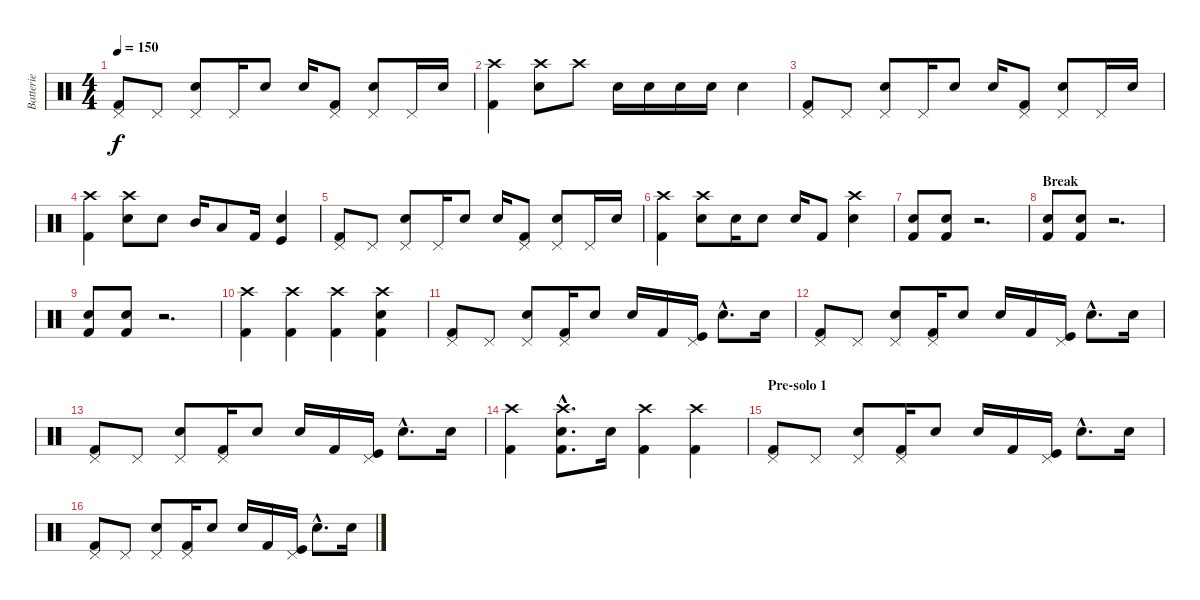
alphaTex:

\track ("Batterie" "Batterie") {instrument percussion}
\staff {score}
\articulation defaults
\ts (4 4)
\tempo 150
\clef neutral
\ks c
("Pedal Hi-Hat (hit)" "Kick (hit) 2").8{dy f} "Pedal Hi-Hat (hit)".8 ("Pedal Hi-Hat (hit)" "Electric Snare (hit)").8 "Pedal Hi-Hat (hit)".16 "Electric Snare (hit)".8 "Electric Snare (hit)".16 ("Pedal Hi-Hat (hit)" "Kick (hit) 2").8 ("Pedal Hi-Hat (hit)" "Electric Snare (hit)").8 "Pedal Hi-Hat (hit)".16 "Electric Snare (hit)".16 |
("Crash high (hit)" "Kick (hit) 2").4 ("Crash high (hit)" "Electric Snare (hit)").8 "Crash high (hit)".8 "Electric Snare (hit)".16 "Electric Snare (hit)".16 "Electric Snare (hit)".16 "Electric Snare (hit)".16 "Electric Snare (hit)".4 |
("Pedal Hi-Hat (hit)" "Kick (hit) 2").8 "Pedal Hi-Hat (hit)".8 ("Pedal Hi-Hat (hit)" "Electric Snare (hit)").8 "Pedal Hi-Hat (hit)".16 "Electric Snare (hit)".8 "Electric Snare (hit)".16 ("Pedal Hi-Hat (hit)" "Kick (hit) 2").8 ("Pedal Hi-Hat (hit)" "Electric Snare (hit)").8 "Pedal Hi-Hat (hit)".16 "Electric Snare (hit)".16 |
("Crash high (hit)" "Kick (hit) 2").4 ("Crash high (hit)" "Electric Snare (hit)").8 "Electric Snare (hit)".8 "Mid Tom (hit)".16 "Low Tom (hit)".8 "Kick (hit) 2".16 ("Electric Snare (hit)" "Kick (hit)").4 |
("Pedal Hi-Hat (hit)" "Kick (hit) 2").8 "Pedal Hi-Hat (hit)".8 ("Pedal Hi-Hat (hit)" "Electric Snare (hit)").8 "Pedal Hi-Hat (hit)".16 "Electric Snare (hit)".8 "Electric Snare (hit)".16 ("Pedal Hi-Hat (hit)" "Kick (hit) 2").8 ("Pedal Hi-Hat (hit)" "Electric Snare (hit)").8 "Pedal Hi-Hat (hit)".16 "Electric Snare (hit)".16 |
("Crash high (hit)" "Kick (hit) 2").4 ("Crash high (hit)" "Electric Snare (hit)").8 "Electric Snare (hit)".16 "Electric Snare (hit)".8 "Electric Snare (hit)".16 "Kick (hit) 2".8 ("Crash high (hit)" "Electric Snare (hit)").4 |
("Electric Snare (hit)" "Kick (hit) 2").8 ("Electric Snare (hit)" "Kick (hit) 2").8 r.2{d} |
\section ("" "Break")
("Electric Snare (hit)" "Kick (hit) 2").8 ("Electric Snare (hit)" "Kick (hit) 2").8 r.2{d} |
("Electric Snare (hit)" "Kick (hit) 2").8 ("Electric Snare (hit)" "Kick (hit) 2").8 r.2{d} |
("Crash high (hit)" "Kick (hit) 2").4 ("Crash high (hit)" "Kick (hit) 2").4 ("Crash high (hit)" "Kick (hit) 2").4 ("Crash high (hit)" "Electric Snare (hit)" "Kick (hit) 2").4 |
("Pedal Hi-Hat (hit)" "Kick (hit) 2").8 "Pedal Hi-Hat (hit)".8 ("Pedal Hi-Hat (hit)" "Electric Snare (hit)").8 ("Pedal Hi-Hat (hit)" "Kick (hit) 2").16 "Electric Snare (hit)".8 "Electric Snare (hit)".16 "Kick (hit) 2".16 ("Pedal Hi-Hat (hit)" "Kick (hit)").16 "Electric Snare (hit)"{hac}.8{d} "Electric Snare (hit)".16 |
("Pedal Hi-Hat (hit)" "Kick (hit) 2").8 "Pedal Hi-Hat (hit)".8 ("Pedal Hi-Hat (hit)" "Electric Snare (hit)").8 ("Pedal Hi-Hat (hit)" "Kick (hit) 2").16 "Electric Snare (hit)".8 "Electric Snare (hit)".16 "Kick (hit) 2".16 ("Pedal Hi-Hat (hit)" "Kick (hit)").16 "Electric Snare (hit)"{hac}.8{d} "Electric Snare (hit)".16 |
("Pedal Hi-Hat (hit)" "Kick (hit) 2").8 "Pedal Hi-Hat (hit)".8 ("Pedal Hi-Hat (hit)" "Electric Snare (hit)").8 ("Pedal Hi-Hat (hit)" "Kick (hit) 2").16 "Electric Snare (hit)".8 "Electric Snare (hit)".16 "Kick (hit) 2".16 ("Pedal Hi-Hat (hit)" "Kick (hit)").16 "Electric Snare (hit)"{hac}.8{d} "Electric Snare (hit)".16 |
("Crash high (hit)" "Kick (hit) 2").4 ("Crash high (hit)"{hac} "Electric Snare (hit)"{hac} "Kick (hit) 2"{hac}).8{d} "Electric Snare (hit)".16 ("Crash high (hit)" "Kick (hit) 2").4 ("Crash high (hit)" "Kick (hit) 2").4 |
\section ("" "Pre-solo 1")
("Pedal Hi-Hat (hit)" "Kick (hit) 2").8 "Pedal Hi-Hat (hit)".8 ("Pedal Hi-Hat (hit)" "Electric Snare (hit)").8 ("Pedal Hi-Hat (hit)" "Kick (hit) 2").16 "Electric Snare (hit)".8 "Electric Snare (hit)".16 "Kick (hit) 2".16 ("Pedal Hi-Hat (hit)" "Kick (hit)").16 "Electric Snare (hit)"{hac}.8{d} "Electric Snare (hit)".16 |
("Pedal Hi-Hat (hit)" "Kick (hit) 2").8 "Pedal Hi-Hat (hit)".8 ("Pedal Hi-Hat (hit)" "Electric Snare (hit)").8 ("Pedal Hi-Hat (hit)" "Kick (hit) 2").16 "Electric Snare (hit)".8 "Electric Snare (hit)".16 "Kick (hit) 2".16 ("Pedal Hi-Hat (hit)" "Kick (hit)").16 "Electric Snare (hit)"{hac}.8{d} "Electric Snare (hit)".16
